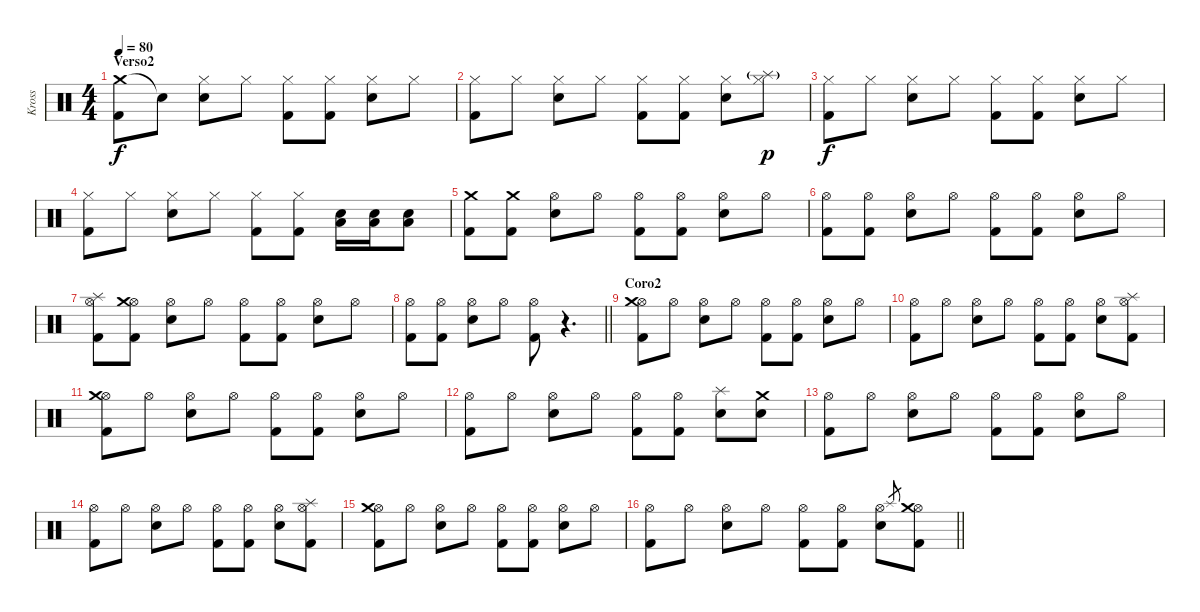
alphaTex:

\track ("Kross" "Kross") {instrument percussion}
\staff {score}
\articulation defaults
\ts (4 4)
\section ("" "Verso2")
\tempo 80
\clef neutral
\ks c
("Crash medium (hit)" "Kick (hit) 2").8{dy f} "Snare (hit)"{t}.8 ("Hi-Hat (closed)" "Snare (hit) 2").8 "Hi-Hat (closed)".8 ("Hi-Hat (closed)" "Kick (hit) 2").8 ("Hi-Hat (closed)" "Kick (hit) 2").8 ("Hi-Hat (closed)" "Snare (hit) 2").8 "Hi-Hat (closed)".8 |
("Hi-Hat (closed)" "Kick (hit) 2").8 "Hi-Hat (closed)".8 ("Hi-Hat (closed)" "Snare (hit) 2").8 "Hi-Hat (closed)".8 ("Hi-Hat (closed)" "Kick (hit) 2").8 ("Hi-Hat (closed)" "Kick (hit) 2").8 ("Hi-Hat (closed)" "Snare (hit) 2").8 ("Hi-Hat (closed)" "Splash (hit)"{g}).8{dy p} |
("Hi-Hat (closed)" "Kick (hit) 2").8{dy f} "Hi-Hat (closed)".8 ("Hi-Hat (closed)" "Snare (hit) 2").8 "Hi-Hat (closed)".8 ("Hi-Hat (closed)" "Kick (hit) 2").8 ("Hi-Hat (closed)" "Kick (hit) 2").8 ("Hi-Hat (closed)" "Snare (hit) 2").8 "Hi-Hat (closed)".8 |
("Hi-Hat (closed)" "Kick (hit) 2").8 "Hi-Hat (closed)".8 ("Hi-Hat (closed)" "Snare (hit) 2").8 "Hi-Hat (closed)".8 ("Hi-Hat (closed)" "Kick (hit) 2").8 ("Hi-Hat (closed)" "Kick (hit) 2").8 ("Low Tom (hit)" "Snare (hit) 2").16 ("Low Tom (hit)" "Snare (hit) 2").16 ("Low Tom (hit)" "Snare (hit) 2").8 |
("Crash medium (hit)" "Kick (hit) 2").8 ("Crash medium (hit)" "Kick (hit) 2").8 ("Hi-Hat (open)" "Snare (hit) 2").8 "Hi-Hat (open)".8 ("Hi-Hat (open)" "Kick (hit) 2").8 ("Hi-Hat (open)" "Kick (hit) 2").8 ("Hi-Hat (open)" "Snare (hit) 2").8 "Hi-Hat (open)".8 |
("Hi-Hat (open)" "Kick (hit) 2").8 ("Hi-Hat (open)" "Kick (hit) 2").8 ("Hi-Hat (open)" "Snare (hit) 2").8 "Hi-Hat (open)".8 ("Hi-Hat (open)" "Kick (hit) 2").8 ("Hi-Hat (open)" "Kick (hit) 2").8 ("Hi-Hat (open)" "Snare (hit) 2").8 "Hi-Hat (open)".8 |
("Hi-Hat (open)" "Splash (hit)" "Kick (hit) 2").8 ("Hi-Hat (open)" "Crash medium (hit)" "Kick (hit) 2").8 ("Hi-Hat (open)" "Snare (hit) 2").8 "Hi-Hat (open)".8 ("Hi-Hat (open)" "Kick (hit) 2").8 ("Hi-Hat (open)" "Kick (hit) 2").8 ("Hi-Hat (open)" "Snare (hit) 2").8 "Hi-Hat (open)".8 |
\barLineRight lightlight
("Hi-Hat (open)" "Kick (hit) 2").8 ("Hi-Hat (open)" "Kick (hit) 2").8 ("Hi-Hat (open)" "Snare (hit) 2").8 "Hi-Hat (open)".8 ("Hi-Hat (open)" "Kick (hit) 2").8 r.4{d} |
\section ("" "Coro2")
("Hi-Hat (open)" "Crash medium (hit)" "Kick (hit) 2").8 "Hi-Hat (open)".8 ("Hi-Hat (open)" "Snare (hit) 2").8 "Hi-Hat (open)".8 ("Hi-Hat (open)" "Kick (hit) 2").8 ("Hi-Hat (open)" "Kick (hit) 2").8 ("Hi-Hat (open)" "Snare (hit) 2").8 "Hi-Hat (open)".8 |
("Hi-Hat (open)" "Kick (hit) 2").8 "Hi-Hat (open)".8 ("Hi-Hat (open)" "Snare (hit) 2").8 "Hi-Hat (open)".8 ("Hi-Hat (open)" "Kick (hit) 2").8 ("Hi-Hat (open)" "Kick (hit) 2").8 ("Hi-Hat (open)" "Snare (hit) 2").8 ("Hi-Hat (open)" "Splash (hit)" "Kick (hit) 2").8 |
("Hi-Hat (open)" "Crash medium (hit)" "Kick (hit) 2").8 "Hi-Hat (open)".8 ("Hi-Hat (open)" "Snare (hit) 2").8 "Hi-Hat (open)".8 ("Hi-Hat (open)" "Kick (hit) 2").8 ("Hi-Hat (open)" "Kick (hit) 2").8 ("Hi-Hat (open)" "Snare (hit) 2").8 "Hi-Hat (open)".8 |
("Hi-Hat (open)" "Kick (hit) 2").8 "Hi-Hat (open)".8 ("Hi-Hat (open)" "Snare (hit) 2").8 "Hi-Hat (open)".8 ("Hi-Hat (open)" "Kick (hit) 2").8 ("Hi-Hat (open)" "Kick (hit) 2").8 ("Splash (hit)" "Snare (hit) 2").8 ("Crash medium (hit)" "Snare (hit) 2").8 |
("Hi-Hat (open)" "Kick (hit) 2").8 "Hi-Hat (open)".8 ("Hi-Hat (open)" "Snare (hit) 2").8 "Hi-Hat (open)".8 ("Hi-Hat (open)" "Kick (hit) 2").8 ("Hi-Hat (open)" "Kick (hit) 2").8 ("Hi-Hat (open)" "Snare (hit) 2").8 "Hi-Hat (open)".8 |
("Hi-Hat (open)" "Kick (hit) 2").8 "Hi-Hat (open)".8 ("Hi-Hat (open)" "Snare (hit) 2").8 "Hi-Hat (open)".8 ("Hi-Hat (open)" "Kick (hit) 2").8 ("Hi-Hat (open)" "Kick (hit) 2").8 ("Hi-Hat (open)" "Snare (hit) 2").8 ("Hi-Hat (open)" "Splash (hit)" "Kick (hit) 2").8 |
("Hi-Hat (open)" "Crash medium (hit)" "Kick (hit) 2").8 "Hi-Hat (open)".8 ("Hi-Hat (open)" "Snare (hit) 2").8 "Hi-Hat (open)".8 ("Hi-Hat (open)" "Kick (hit) 2").8 ("Hi-Hat (open)" "Kick (hit) 2").8 ("Hi-Hat (open)" "Snare (hit) 2").8 "Hi-Hat (open)".8 |
\barLineRight lightlight
("Hi-Hat (open)" "Kick (hit) 2").8 "Hi-Hat (open)".8 ("Hi-Hat (open)" "Snare (hit) 2").8 "Hi-Hat (open)".8 ("Hi-Hat (open)" "Kick (hit) 2").8 ("Hi-Hat (open)" "Kick (hit) 2").8 ("Hi-Hat (open)" "Snare (hit) 2").8 "Splash (hit)".8{gr} ("Hi-Hat (open)" "Crash medium (hit)" "Kick (hit) 2").8
